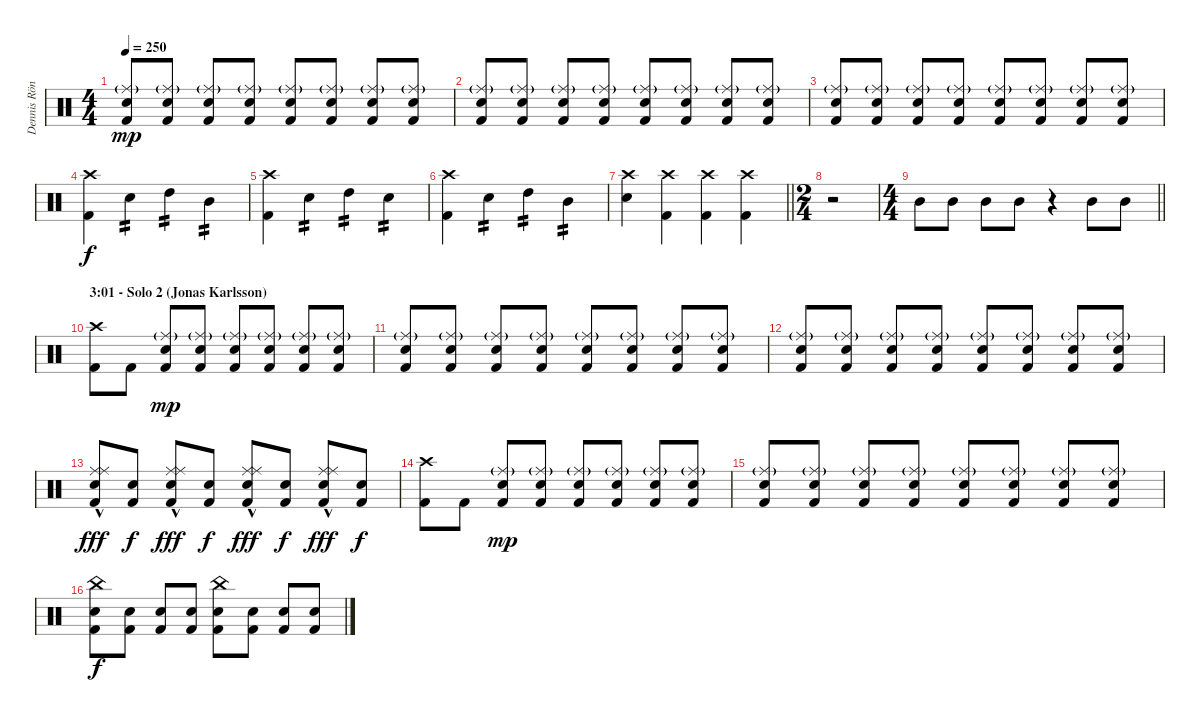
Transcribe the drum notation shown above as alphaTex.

\track ("Dennis Röndum" "Dennis Rön") {instrument percussion}
\staff {score}
\articulation defaults
\ts (4 4)
\tempo 250
\clef neutral
\ks c
("Snare (hit) 2" "Ride (middle)"{g} "Kick (hit) 2").8{dy mp} ("Snare (hit) 2" "Ride (middle)"{g} "Kick (hit) 2").8 ("Snare (hit) 2" "Ride (middle)"{g} "Kick (hit) 2").8 ("Snare (hit) 2" "Ride (middle)"{g} "Kick (hit) 2").8 ("Snare (hit) 2" "Ride (middle)"{g} "Kick (hit) 2").8 ("Snare (hit) 2" "Ride (middle)"{g} "Kick (hit) 2").8 ("Snare (hit) 2" "Ride (middle)"{g} "Kick (hit) 2").8 ("Snare (hit) 2" "Ride (middle)"{g} "Kick (hit) 2").8 |
("Snare (hit) 2" "Ride (middle)"{g} "Kick (hit) 2").8 ("Snare (hit) 2" "Ride (middle)"{g} "Kick (hit) 2").8 ("Snare (hit) 2" "Ride (middle)"{g} "Kick (hit) 2").8 ("Snare (hit) 2" "Ride (middle)"{g} "Kick (hit) 2").8 ("Snare (hit) 2" "Ride (middle)"{g} "Kick (hit) 2").8 ("Snare (hit) 2" "Ride (middle)"{g} "Kick (hit) 2").8 ("Snare (hit) 2" "Ride (middle)"{g} "Kick (hit) 2").8 ("Snare (hit) 2" "Ride (middle)"{g} "Kick (hit) 2").8 |
("Snare (hit) 2" "Ride (middle)"{g} "Kick (hit) 2").8 ("Snare (hit) 2" "Ride (middle)"{g} "Kick (hit) 2").8 ("Snare (hit) 2" "Ride (middle)"{g} "Kick (hit) 2").8 ("Snare (hit) 2" "Ride (middle)"{g} "Kick (hit) 2").8 ("Snare (hit) 2" "Ride (middle)"{g} "Kick (hit) 2").8 ("Snare (hit) 2" "Ride (middle)"{g} "Kick (hit) 2").8 ("Snare (hit) 2" "Ride (middle)"{g} "Kick (hit) 2").8 ("Snare (hit) 2" "Ride (middle)"{g} "Kick (hit) 2").8 |
("Crash high (hit)" "Kick (hit) 2").4{dy f} "Snare (hit) 2".4{tp 2} "High Tom (hit)".4{tp 2} "Mid Tom (hit)".4{tp 2} |
("Crash high (hit)" "Kick (hit) 2").4 "Snare (hit) 2".4{tp 2} "High Tom (hit)".4{tp 2} "Snare (hit) 2".4{tp 2} |
("Kick (hit) 2" "Crash high (hit)").4 "Snare (hit) 2".4{tp 2} "High Tom (hit)".4{tp 2} "Mid Tom (hit)".4{tp 2} |
\barLineRight lightlight
("Crash high (hit)" "Snare (hit) 2").4 ("Crash high (hit)" "Kick (hit) 2").4 ("Crash high (hit)" "Kick (hit) 2").4 ("Crash high (hit)" "Kick (hit) 2").4 |
\ts (2 4)
r.2 |
\ts (4 4)
\barLineRight lightlight "Mid Tom (hit)".8 "Mid Tom (hit)".8 "Mid Tom (hit)".8 "Mid Tom (hit)".8
r.4 "Mid Tom (hit)".8 "Mid Tom (hit)".8 |
\section ("" "3:01 - Solo 2 (Jonas Karlsson)")
("Crash high (hit)" "Kick (hit) 2").8 "Kick (hit) 2".8 ("Snare (hit) 2" "Ride (middle)"{g} "Kick (hit) 2").8{dy mp} ("Snare (hit) 2" "Ride (middle)"{g} "Kick (hit) 2").8 ("Snare (hit) 2" "Ride (middle)"{g} "Kick (hit) 2").8 ("Snare (hit) 2" "Ride (middle)"{g} "Kick (hit) 2").8 ("Snare (hit) 2" "Ride (middle)"{g} "Kick (hit) 2").8 ("Snare (hit) 2" "Ride (middle)"{g} "Kick (hit) 2").8 |
("Snare (hit) 2" "Ride (middle)"{g} "Kick (hit) 2").8 ("Snare (hit) 2" "Ride (middle)"{g} "Kick (hit) 2").8 ("Snare (hit) 2" "Ride (middle)"{g} "Kick (hit) 2").8 ("Snare (hit) 2" "Ride (middle)"{g} "Kick (hit) 2").8 ("Snare (hit) 2" "Ride (middle)"{g} "Kick (hit) 2").8 ("Snare (hit) 2" "Ride (middle)"{g} "Kick (hit) 2").8 ("Snare (hit) 2" "Ride (middle)"{g} "Kick (hit) 2").8 ("Snare (hit) 2" "Ride (middle)"{g} "Kick (hit) 2").8 |
("Snare (hit) 2" "Ride (middle)"{g} "Kick (hit) 2").8 ("Snare (hit) 2" "Ride (middle)"{g} "Kick (hit) 2").8 ("Snare (hit) 2" "Ride (middle)"{g} "Kick (hit) 2").8 ("Snare (hit) 2" "Ride (middle)"{g} "Kick (hit) 2").8 ("Snare (hit) 2" "Ride (middle)"{g} "Kick (hit) 2").8 ("Snare (hit) 2" "Ride (middle)"{g} "Kick (hit) 2").8 ("Snare (hit) 2" "Ride (middle)"{g} "Kick (hit) 2").8 ("Snare (hit) 2" "Ride (middle)"{g} "Kick (hit) 2").8 |
("Ride (middle)" "Snare (hit) 2" "Ride (middle)"{hac} "Kick (hit) 2").8{dy fff} ("Snare (hit) 2" "Kick (hit) 2").8{dy f} ("Ride (middle)" "Snare (hit) 2" "Ride (middle)"{hac} "Kick (hit) 2").8{dy fff} ("Snare (hit) 2" "Kick (hit) 2").8{dy f} ("Ride (middle)" "Snare (hit) 2" "Ride (middle)"{hac} "Kick (hit) 2").8{dy fff} ("Snare (hit) 2" "Kick (hit) 2").8{dy f} ("Ride (middle)" "Snare (hit) 2" "Ride (middle)"{hac} "Kick (hit) 2").8{dy fff} ("Snare (hit) 2" "Kick (hit) 2").8{dy f} |
("Crash high (hit)" "Kick (hit) 2").8 "Kick (hit) 2".8 ("Snare (hit) 2" "Ride (middle)"{g} "Kick (hit) 2").8{dy mp} ("Snare (hit) 2" "Ride (middle)"{g} "Kick (hit) 2").8 ("Snare (hit) 2" "Ride (middle)"{g} "Kick (hit) 2").8 ("Snare (hit) 2" "Ride (middle)"{g} "Kick (hit) 2").8 ("Snare (hit) 2" "Ride (middle)"{g} "Kick (hit) 2").8 ("Snare (hit) 2" "Ride (middle)"{g} "Kick (hit) 2").8 |
("Snare (hit) 2" "Ride (middle)"{g} "Kick (hit) 2").8 ("Snare (hit) 2" "Ride (middle)"{g} "Kick (hit) 2").8 ("Snare (hit) 2" "Ride (middle)"{g} "Kick (hit) 2").8 ("Snare (hit) 2" "Ride (middle)"{g} "Kick (hit) 2").8 ("Snare (hit) 2" "Ride (middle)"{g} "Kick (hit) 2").8 ("Snare (hit) 2" "Ride (middle)"{g} "Kick (hit) 2").8 ("Snare (hit) 2" "Ride (middle)"{g} "Kick (hit) 2").8 ("Snare (hit) 2" "Ride (middle)"{g} "Kick (hit) 2").8 |
("Snare (hit) 2" "China (hit)" "Kick (hit) 2").8{dy f} ("Snare (hit) 2" "Kick (hit) 2").8 ("Snare (hit) 2" "Kick (hit) 2").8 ("Snare (hit) 2" "Kick (hit) 2").8 ("Snare (hit) 2" "China (hit)" "Kick (hit) 2").8 ("Snare (hit) 2" "Kick (hit) 2").8 ("Snare (hit) 2" "Kick (hit) 2").8 ("Snare (hit) 2" "Kick (hit) 2").8
